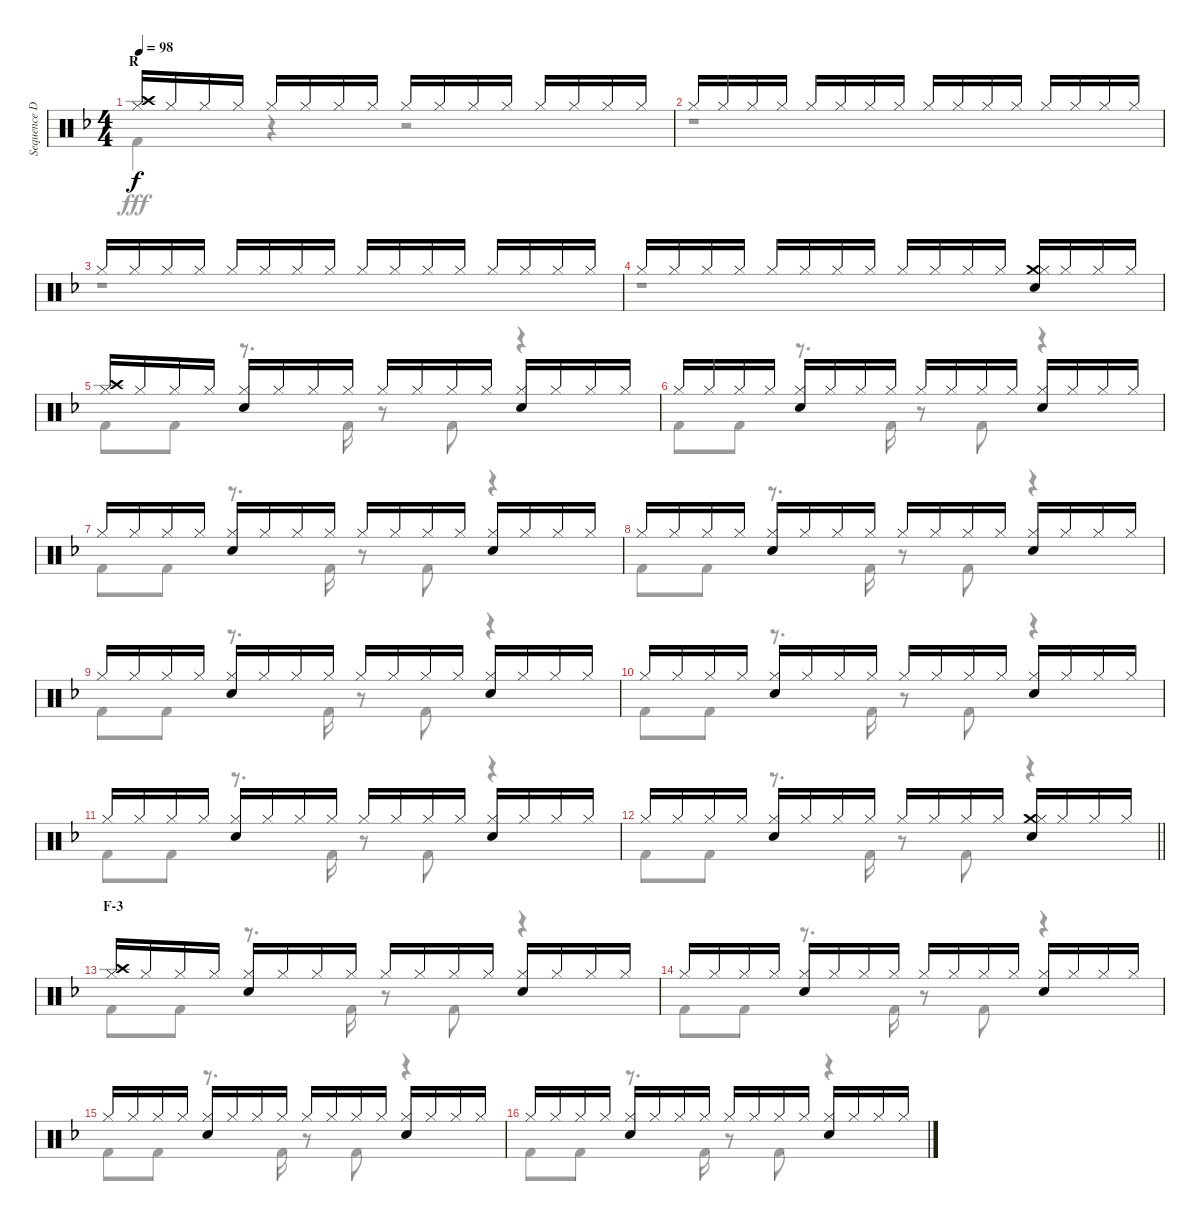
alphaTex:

\track ("Sequence Drums I" "Sequence D") {instrument percussion}
\staff {score}
\articulation defaults
\voice
\ts (4 4)
\section ("" "R")
\tempo 98
\clef neutral
\ks f
("Crash high (hit)" "Hi-Hat (closed)").16{dy f} "Hi-Hat (closed)".16 "Hi-Hat (closed)".16 "Hi-Hat (closed)".16 "Hi-Hat (closed)".16 "Hi-Hat (closed)".16 "Hi-Hat (closed)".16 "Hi-Hat (closed)".16 "Hi-Hat (closed)".16 "Hi-Hat (closed)".16 "Hi-Hat (closed)".16 "Hi-Hat (closed)".16 "Hi-Hat (closed)".16 "Hi-Hat (closed)".16 "Hi-Hat (closed)".16 "Hi-Hat (closed)".16 |
"Hi-Hat (closed)".16 "Hi-Hat (closed)".16 "Hi-Hat (closed)".16 "Hi-Hat (closed)".16 "Hi-Hat (closed)".16 "Hi-Hat (closed)".16 "Hi-Hat (closed)".16 "Hi-Hat (closed)".16 "Hi-Hat (closed)".16 "Hi-Hat (closed)".16 "Hi-Hat (closed)".16 "Hi-Hat (closed)".16 "Hi-Hat (closed)".16 "Hi-Hat (closed)".16 "Hi-Hat (closed)".16 "Hi-Hat (closed)".16 |
"Hi-Hat (closed)".16 "Hi-Hat (closed)".16 "Hi-Hat (closed)".16 "Hi-Hat (closed)".16 "Hi-Hat (closed)".16 "Hi-Hat (closed)".16 "Hi-Hat (closed)".16 "Hi-Hat (closed)".16 "Hi-Hat (closed)".16 "Hi-Hat (closed)".16 "Hi-Hat (closed)".16 "Hi-Hat (closed)".16 "Hi-Hat (closed)".16 "Hi-Hat (closed)".16 "Hi-Hat (closed)".16 "Hi-Hat (closed)".16 |
"Hi-Hat (closed)".16 "Hi-Hat (closed)".16 "Hi-Hat (closed)".16 "Hi-Hat (closed)".16 "Hi-Hat (closed)".16 "Hi-Hat (closed)".16 "Hi-Hat (closed)".16 "Hi-Hat (closed)".16 "Hi-Hat (closed)".16 "Hi-Hat (closed)".16 "Hi-Hat (closed)".16 "Hi-Hat (closed)".16 ("Crash medium (hit)" "Hi-Hat (closed)" "Electric Snare (hit)").16 "Hi-Hat (closed)".16 "Hi-Hat (closed)".16 "Hi-Hat (closed)".16 |
("Crash high (hit)" "Hi-Hat (closed)").16 "Hi-Hat (closed)".16 "Hi-Hat (closed)".16 "Hi-Hat (closed)".16 ("Hi-Hat (closed)" "Electric Snare (hit)").16 "Hi-Hat (closed)".16 "Hi-Hat (closed)".16 "Hi-Hat (closed)".16 "Hi-Hat (closed)".16 "Hi-Hat (closed)".16 "Hi-Hat (closed)".16 "Hi-Hat (closed)".16 ("Hi-Hat (closed)" "Electric Snare (hit)").16 "Hi-Hat (closed)".16 "Hi-Hat (closed)".16 "Hi-Hat (closed)".16 |
"Hi-Hat (closed)".16 "Hi-Hat (closed)".16 "Hi-Hat (closed)".16 "Hi-Hat (closed)".16 ("Hi-Hat (closed)" "Electric Snare (hit)").16 "Hi-Hat (closed)".16 "Hi-Hat (closed)".16 "Hi-Hat (closed)".16 "Hi-Hat (closed)".16 "Hi-Hat (closed)".16 "Hi-Hat (closed)".16 "Hi-Hat (closed)".16 ("Hi-Hat (closed)" "Electric Snare (hit)").16 "Hi-Hat (closed)".16 "Hi-Hat (closed)".16 "Hi-Hat (closed)".16 |
"Hi-Hat (closed)".16 "Hi-Hat (closed)".16 "Hi-Hat (closed)".16 "Hi-Hat (closed)".16 ("Hi-Hat (closed)" "Electric Snare (hit)").16 "Hi-Hat (closed)".16 "Hi-Hat (closed)".16 "Hi-Hat (closed)".16 "Hi-Hat (closed)".16 "Hi-Hat (closed)".16 "Hi-Hat (closed)".16 "Hi-Hat (closed)".16 ("Hi-Hat (closed)" "Electric Snare (hit)").16 "Hi-Hat (closed)".16 "Hi-Hat (closed)".16 "Hi-Hat (closed)".16 |
"Hi-Hat (closed)".16 "Hi-Hat (closed)".16 "Hi-Hat (closed)".16 "Hi-Hat (closed)".16 ("Hi-Hat (closed)" "Electric Snare (hit)").16 "Hi-Hat (closed)".16 "Hi-Hat (closed)".16 "Hi-Hat (closed)".16 "Hi-Hat (closed)".16 "Hi-Hat (closed)".16 "Hi-Hat (closed)".16 "Hi-Hat (closed)".16 ("Hi-Hat (closed)" "Electric Snare (hit)").16 "Hi-Hat (closed)".16 "Hi-Hat (closed)".16 "Hi-Hat (closed)".16 |
"Hi-Hat (closed)".16 "Hi-Hat (closed)".16 "Hi-Hat (closed)".16 "Hi-Hat (closed)".16 ("Hi-Hat (closed)" "Electric Snare (hit)").16 "Hi-Hat (closed)".16 "Hi-Hat (closed)".16 "Hi-Hat (closed)".16 "Hi-Hat (closed)".16 "Hi-Hat (closed)".16 "Hi-Hat (closed)".16 "Hi-Hat (closed)".16 ("Hi-Hat (closed)" "Electric Snare (hit)").16 "Hi-Hat (closed)".16 "Hi-Hat (closed)".16 "Hi-Hat (closed)".16 |
"Hi-Hat (closed)".16 "Hi-Hat (closed)".16 "Hi-Hat (closed)".16 "Hi-Hat (closed)".16 ("Hi-Hat (closed)" "Electric Snare (hit)").16 "Hi-Hat (closed)".16 "Hi-Hat (closed)".16 "Hi-Hat (closed)".16 "Hi-Hat (closed)".16 "Hi-Hat (closed)".16 "Hi-Hat (closed)".16 "Hi-Hat (closed)".16 ("Hi-Hat (closed)" "Electric Snare (hit)").16 "Hi-Hat (closed)".16 "Hi-Hat (closed)".16 "Hi-Hat (closed)".16 |
"Hi-Hat (closed)".16 "Hi-Hat (closed)".16 "Hi-Hat (closed)".16 "Hi-Hat (closed)".16 ("Hi-Hat (closed)" "Electric Snare (hit)").16 "Hi-Hat (closed)".16 "Hi-Hat (closed)".16 "Hi-Hat (closed)".16 "Hi-Hat (closed)".16 "Hi-Hat (closed)".16 "Hi-Hat (closed)".16 "Hi-Hat (closed)".16 ("Hi-Hat (closed)" "Electric Snare (hit)").16 "Hi-Hat (closed)".16 "Hi-Hat (closed)".16 "Hi-Hat (closed)".16 |
\barLineRight lightlight "Hi-Hat (closed)".16 "Hi-Hat (closed)".16 "Hi-Hat (closed)".16 "Hi-Hat (closed)".16
("Hi-Hat (closed)" "Electric Snare (hit)").16 "Hi-Hat (closed)".16 "Hi-Hat (closed)".16 "Hi-Hat (closed)".16 "Hi-Hat (closed)".16 "Hi-Hat (closed)".16 "Hi-Hat (closed)".16 "Hi-Hat (closed)".16 ("Crash medium (hit)" "Hi-Hat (closed)" "Electric Snare (hit)").16 "Hi-Hat (closed)".16 "Hi-Hat (closed)".16 "Hi-Hat (closed)".16 |
\section ("" "F-3")
("Crash high (hit)" "Hi-Hat (closed)").16 "Hi-Hat (closed)".16 "Hi-Hat (closed)".16 "Hi-Hat (closed)".16 ("Hi-Hat (closed)" "Electric Snare (hit)").16 "Hi-Hat (closed)".16 "Hi-Hat (closed)".16 "Hi-Hat (closed)".16 "Hi-Hat (closed)".16 "Hi-Hat (closed)".16 "Hi-Hat (closed)".16 "Hi-Hat (closed)".16 ("Hi-Hat (closed)" "Electric Snare (hit)").16 "Hi-Hat (closed)".16 "Hi-Hat (closed)".16 "Hi-Hat (closed)".16 |
"Hi-Hat (closed)".16 "Hi-Hat (closed)".16 "Hi-Hat (closed)".16 "Hi-Hat (closed)".16 ("Hi-Hat (closed)" "Electric Snare (hit)").16 "Hi-Hat (closed)".16 "Hi-Hat (closed)".16 "Hi-Hat (closed)".16 "Hi-Hat (closed)".16 "Hi-Hat (closed)".16 "Hi-Hat (closed)".16 "Hi-Hat (closed)".16 ("Hi-Hat (closed)" "Electric Snare (hit)").16 "Hi-Hat (closed)".16 "Hi-Hat (closed)".16 "Hi-Hat (closed)".16 |
"Hi-Hat (closed)".16 "Hi-Hat (closed)".16 "Hi-Hat (closed)".16 "Hi-Hat (closed)".16 ("Hi-Hat (closed)" "Electric Snare (hit)").16 "Hi-Hat (closed)".16 "Hi-Hat (closed)".16 "Hi-Hat (closed)".16 "Hi-Hat (closed)".16 "Hi-Hat (closed)".16 "Hi-Hat (closed)".16 "Hi-Hat (closed)".16 ("Hi-Hat (closed)" "Electric Snare (hit)").16 "Hi-Hat (closed)".16 "Hi-Hat (closed)".16 "Hi-Hat (closed)".16 |
"Hi-Hat (closed)".16 "Hi-Hat (closed)".16 "Hi-Hat (closed)".16 "Hi-Hat (closed)".16 ("Hi-Hat (closed)" "Electric Snare (hit)").16 "Hi-Hat (closed)".16 "Hi-Hat (closed)".16 "Hi-Hat (closed)".16 "Hi-Hat (closed)".16 "Hi-Hat (closed)".16 "Hi-Hat (closed)".16 "Hi-Hat (closed)".16 ("Hi-Hat (closed)" "Electric Snare (hit)").16 "Hi-Hat (closed)".16 "Hi-Hat (closed)".16 "Hi-Hat (closed)".16
\voice
\clef neutral
\ottava regular
\simile none
\ks f "Kick (hit) 2".4{dy fff}
r.4 r.2 |
r.1 |
r.1 |
r.1 |
"Kick (hit) 2".8 "Kick (hit) 2".8 r.8{d} "Kick (hit) 2".16 r.8 "Kick (hit) 2".8 r.4 |
"Kick (hit) 2".8 "Kick (hit) 2".8 r.8{d} "Kick (hit) 2".16 r.8 "Kick (hit) 2".8 r.4 |
"Kick (hit) 2".8 "Kick (hit) 2".8 r.8{d} "Kick (hit) 2".16 r.8 "Kick (hit) 2".8 r.4 |
"Kick (hit) 2".8 "Kick (hit) 2".8 r.8{d} "Kick (hit) 2".16 r.8 "Kick (hit) 2".8 r.4 |
"Kick (hit) 2".8 "Kick (hit) 2".8 r.8{d} "Kick (hit) 2".16 r.8 "Kick (hit) 2".8 r.4 |
"Kick (hit) 2".8 "Kick (hit) 2".8 r.8{d} "Kick (hit) 2".16 r.8 "Kick (hit) 2".8 r.4 |
"Kick (hit) 2".8 "Kick (hit) 2".8 r.8{d} "Kick (hit) 2".16 r.8 "Kick (hit) 2".8 r.4 |
\barLineRight lightlight "Kick (hit) 2".8 "Kick (hit) 2".8
r.8{d} "Kick (hit) 2".16 r.8 "Kick (hit) 2".8 r.4 |
"Kick (hit) 2".8 "Kick (hit) 2".8 r.8{d} "Kick (hit) 2".16 r.8 "Kick (hit) 2".8 r.4 |
"Kick (hit) 2".8 "Kick (hit) 2".8 r.8{d} "Kick (hit) 2".16 r.8 "Kick (hit) 2".8 r.4 |
"Kick (hit) 2".8 "Kick (hit) 2".8 r.8{d} "Kick (hit) 2".16 r.8 "Kick (hit) 2".8 r.4 |
"Kick (hit) 2".8 "Kick (hit) 2".8 r.8{d} "Kick (hit) 2".16 r.8 "Kick (hit) 2".8 r.4
